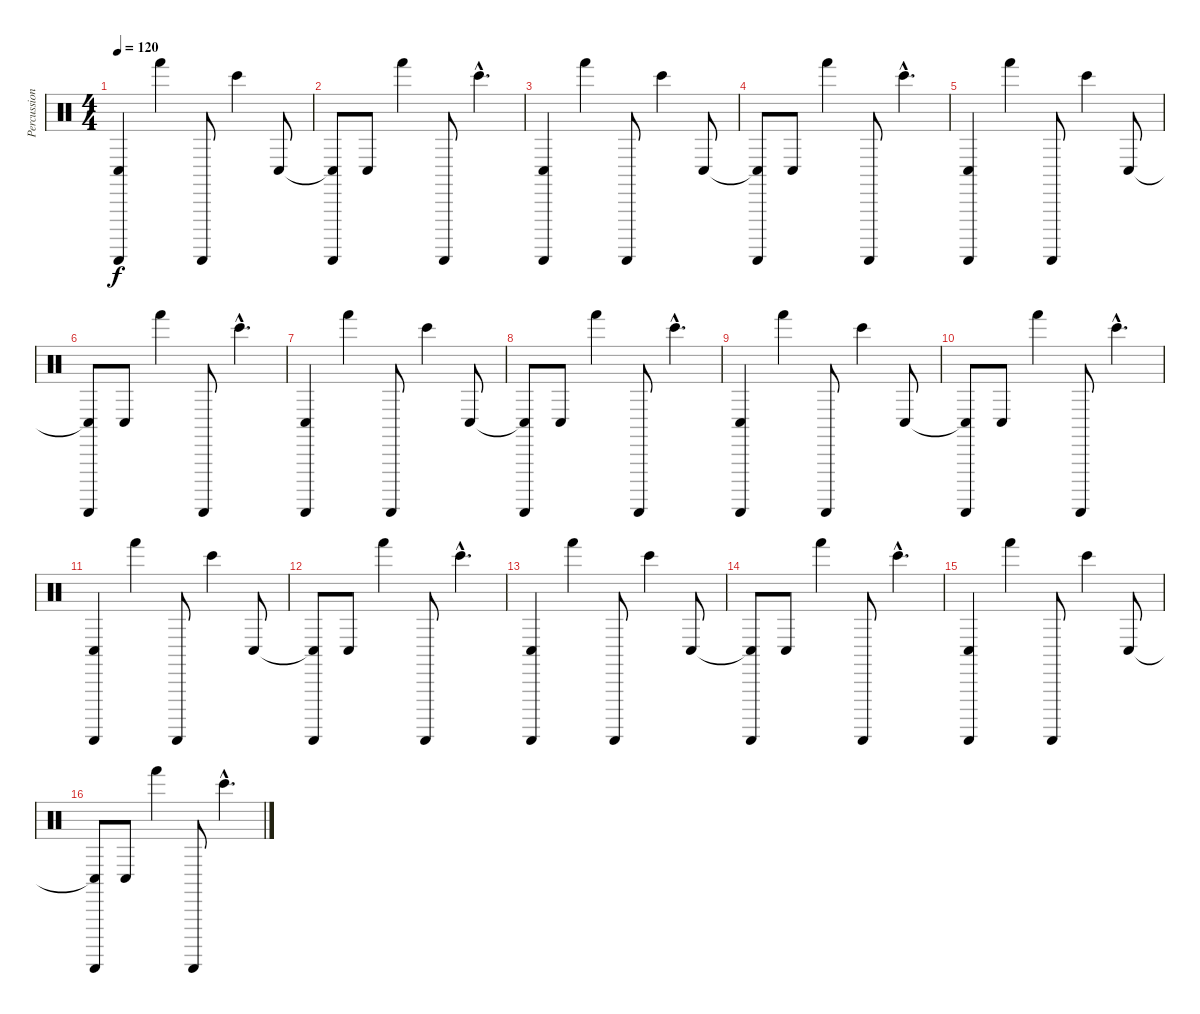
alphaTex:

\track ("Percussions" "Percussion") {instrument percussion}
\staff {score}
\articulation defaults
\ts (4 4)
\tempo 120
\clef neutral
\ks c
("Conga low (hit)" "Guiro (scrap-return)").4{dy f} "Hand (hit)".4 "Guiro (scrap-return)".8 "Bongo High (hit)".4 "Conga low (hit)".8 |
("Conga low (hit)"{t} "Guiro (scrap-return)").8 "Conga low (hit)".8 "Hand (hit)".4 "Guiro (scrap-return)".8 "Bongo High (hit)"{hac}.4{d} |
("Conga low (hit)" "Guiro (scrap-return)").4 "Hand (hit)".4 "Guiro (scrap-return)".8 "Bongo High (hit)".4 "Conga low (hit)".8 |
("Conga low (hit)"{t} "Guiro (scrap-return)").8 "Conga low (hit)".8 "Hand (hit)".4 "Guiro (scrap-return)".8 "Bongo High (hit)"{hac}.4{d} |
("Conga low (hit)" "Guiro (scrap-return)").4 "Hand (hit)".4 "Guiro (scrap-return)".8 "Bongo High (hit)".4 "Conga low (hit)".8 |
("Conga low (hit)"{t} "Guiro (scrap-return)").8 "Conga low (hit)".8 "Hand (hit)".4 "Guiro (scrap-return)".8 "Bongo High (hit)"{hac}.4{d} |
("Conga low (hit)" "Guiro (scrap-return)").4 "Hand (hit)".4 "Guiro (scrap-return)".8 "Bongo High (hit)".4 "Conga low (hit)".8 |
("Conga low (hit)"{t} "Guiro (scrap-return)").8 "Conga low (hit)".8 "Hand (hit)".4 "Guiro (scrap-return)".8 "Bongo High (hit)"{hac}.4{d} |
("Conga low (hit)" "Guiro (scrap-return)").4 "Hand (hit)".4 "Guiro (scrap-return)".8 "Bongo High (hit)".4 "Conga low (hit)".8 |
("Conga low (hit)"{t} "Guiro (scrap-return)").8 "Conga low (hit)".8 "Hand (hit)".4 "Guiro (scrap-return)".8 "Bongo High (hit)"{hac}.4{d} |
("Conga low (hit)" "Guiro (scrap-return)").4 "Hand (hit)".4 "Guiro (scrap-return)".8 "Bongo High (hit)".4 "Conga low (hit)".8 |
("Conga low (hit)"{t} "Guiro (scrap-return)").8 "Conga low (hit)".8 "Hand (hit)".4 "Guiro (scrap-return)".8 "Bongo High (hit)"{hac}.4{d} |
("Conga low (hit)" "Guiro (scrap-return)").4 "Hand (hit)".4 "Guiro (scrap-return)".8 "Bongo High (hit)".4 "Conga low (hit)".8 |
("Conga low (hit)"{t} "Guiro (scrap-return)").8 "Conga low (hit)".8 "Hand (hit)".4 "Guiro (scrap-return)".8 "Bongo High (hit)"{hac}.4{d} |
("Conga low (hit)" "Guiro (scrap-return)").4 "Hand (hit)".4 "Guiro (scrap-return)".8 "Bongo High (hit)".4 "Conga low (hit)".8 |
("Conga low (hit)"{t} "Guiro (scrap-return)").8 "Conga low (hit)".8 "Hand (hit)".4 "Guiro (scrap-return)".8 "Bongo High (hit)"{hac}.4{d}
